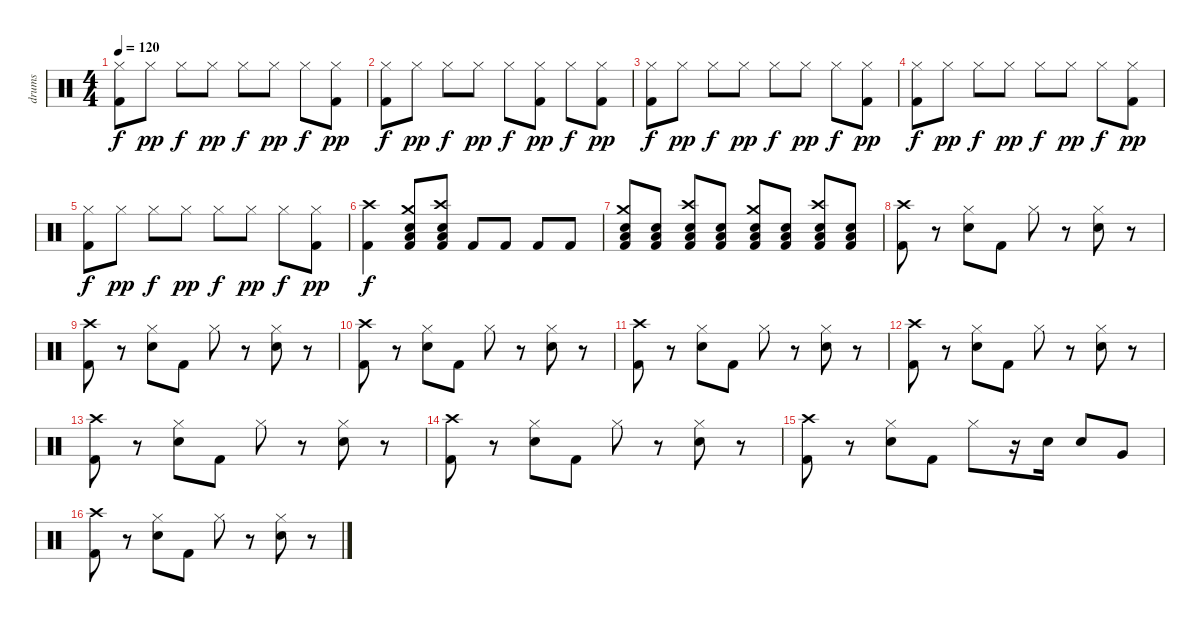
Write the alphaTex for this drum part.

\track ("drums" "drums") {instrument percussion}
\staff {score}
\articulation defaults
\ts (4 4)
\tempo 120
\clef neutral
\ks c
("Hi-Hat (closed)" "Kick (hit) 2").8{dy f} "Hi-Hat (closed)".8{dy pp} "Hi-Hat (closed)".8{dy f} "Hi-Hat (closed)".8{dy pp} "Hi-Hat (closed)".8{dy f} "Hi-Hat (closed)".8{dy pp} "Hi-Hat (closed)".8{dy f} ("Hi-Hat (closed)" "Kick (hit) 2").8{dy pp} |
("Hi-Hat (closed)" "Kick (hit) 2").8{dy f} "Hi-Hat (closed)".8{dy pp} "Hi-Hat (closed)".8{dy f} "Hi-Hat (closed)".8{dy pp} "Hi-Hat (closed)".8{dy f} ("Hi-Hat (closed)" "Kick (hit) 2").8{dy pp} "Hi-Hat (closed)".8{dy f} ("Hi-Hat (closed)" "Kick (hit) 2").8{dy pp} |
("Hi-Hat (closed)" "Kick (hit) 2").8{dy f} "Hi-Hat (closed)".8{dy pp} "Hi-Hat (closed)".8{dy f} "Hi-Hat (closed)".8{dy pp} "Hi-Hat (closed)".8{dy f} "Hi-Hat (closed)".8{dy pp} "Hi-Hat (closed)".8{dy f} ("Hi-Hat (closed)" "Kick (hit) 2").8{dy pp} |
("Hi-Hat (closed)" "Kick (hit) 2").8{dy f} "Hi-Hat (closed)".8{dy pp} "Hi-Hat (closed)".8{dy f} "Hi-Hat (closed)".8{dy pp} "Hi-Hat (closed)".8{dy f} "Hi-Hat (closed)".8{dy pp} "Hi-Hat (closed)".8{dy f} ("Hi-Hat (closed)" "Kick (hit) 2").8{dy pp} |
("Hi-Hat (closed)" "Kick (hit) 2").8{dy f} "Hi-Hat (closed)".8{dy pp} "Hi-Hat (closed)".8{dy f} "Hi-Hat (closed)".8{dy pp} "Hi-Hat (closed)".8{dy f} "Hi-Hat (closed)".8{dy pp} "Hi-Hat (closed)".8{dy f} ("Hi-Hat (closed)" "Kick (hit) 2").8{dy pp} |
("Crash high (hit)" "Kick (hit) 2").4{dy f} ("Crash medium (hit)" "Low Floor Tom (hit)" "Snare (hit) 2" "Kick (hit) 2").8 ("Crash high (hit)" "Low Floor Tom (hit)" "Snare (hit) 2" "Kick (hit) 2").8 "Kick (hit) 2".8 "Kick (hit) 2".8 "Kick (hit) 2".8 "Kick (hit) 2".8 |
("Crash medium (hit)" "Snare (hit) 2" "Low Floor Tom (hit)" "Kick (hit) 2").8 ("Snare (hit) 2" "Low Floor Tom (hit)" "Kick (hit) 2").8 ("Crash high (hit)" "Snare (hit) 2" "Low Floor Tom (hit)" "Kick (hit) 2").8 ("Snare (hit) 2" "Low Floor Tom (hit)" "Kick (hit) 2").8 ("Crash medium (hit)" "Snare (hit) 2" "Low Floor Tom (hit)" "Kick (hit) 2").8 ("Snare (hit) 2" "Low Floor Tom (hit)" "Kick (hit) 2").8 ("Crash high (hit)" "Snare (hit) 2" "Low Floor Tom (hit)" "Kick (hit) 2").8 ("Snare (hit) 2" "Low Floor Tom (hit)" "Kick (hit) 2").8 |
("Crash high (hit)" "Kick (hit) 2").8 r.8 ("Hi-Hat (closed)" "Snare (hit) 2").8 "Kick (hit) 2".8 "Hi-Hat (closed)".8 r.8 ("Hi-Hat (closed)" "Snare (hit) 2").8 r.8 |
("Crash high (hit)" "Kick (hit) 2").8 r.8 ("Hi-Hat (closed)" "Snare (hit) 2").8 "Kick (hit) 2".8 "Hi-Hat (closed)".8 r.8 ("Hi-Hat (closed)" "Snare (hit) 2").8 r.8 |
("Crash high (hit)" "Kick (hit) 2").8 r.8 ("Hi-Hat (closed)" "Snare (hit) 2").8 "Kick (hit) 2".8 "Hi-Hat (closed)".8 r.8 ("Hi-Hat (closed)" "Snare (hit) 2").8 r.8 |
("Crash high (hit)" "Kick (hit) 2").8 r.8 ("Hi-Hat (closed)" "Snare (hit) 2").8 "Kick (hit) 2".8 "Hi-Hat (closed)".8 r.8 ("Hi-Hat (closed)" "Snare (hit) 2").8 r.8 |
("Crash high (hit)" "Kick (hit) 2").8 r.8 ("Hi-Hat (closed)" "Snare (hit) 2").8 "Kick (hit) 2".8 "Hi-Hat (closed)".8 r.8 ("Hi-Hat (closed)" "Snare (hit) 2").8 r.8 |
("Crash high (hit)" "Kick (hit) 2").8 r.8 ("Hi-Hat (closed)" "Snare (hit) 2").8 "Kick (hit) 2".8 "Hi-Hat (closed)".8 r.8 ("Hi-Hat (closed)" "Snare (hit) 2").8 r.8 |
("Crash high (hit)" "Kick (hit) 2").8 r.8 ("Hi-Hat (closed)" "Snare (hit) 2").8 "Kick (hit) 2".8 "Hi-Hat (closed)".8 r.8 ("Hi-Hat (closed)" "Snare (hit) 2").8 r.8 |
("Crash high (hit)" "Kick (hit) 2").8 r.8 ("Hi-Hat (closed)" "Snare (hit) 2").8 "Kick (hit) 2".8 "Hi-Hat (closed)".8 r.16 "Snare (hit) 2".16 "Snare (hit) 2".8 "Very Low Tom (hit)".8 |
("Crash high (hit)" "Kick (hit) 2").8 r.8 ("Hi-Hat (closed)" "Snare (hit) 2").8 "Kick (hit) 2".8 "Hi-Hat (closed)".8 r.8 ("Hi-Hat (closed)" "Snare (hit) 2").8 r.8
